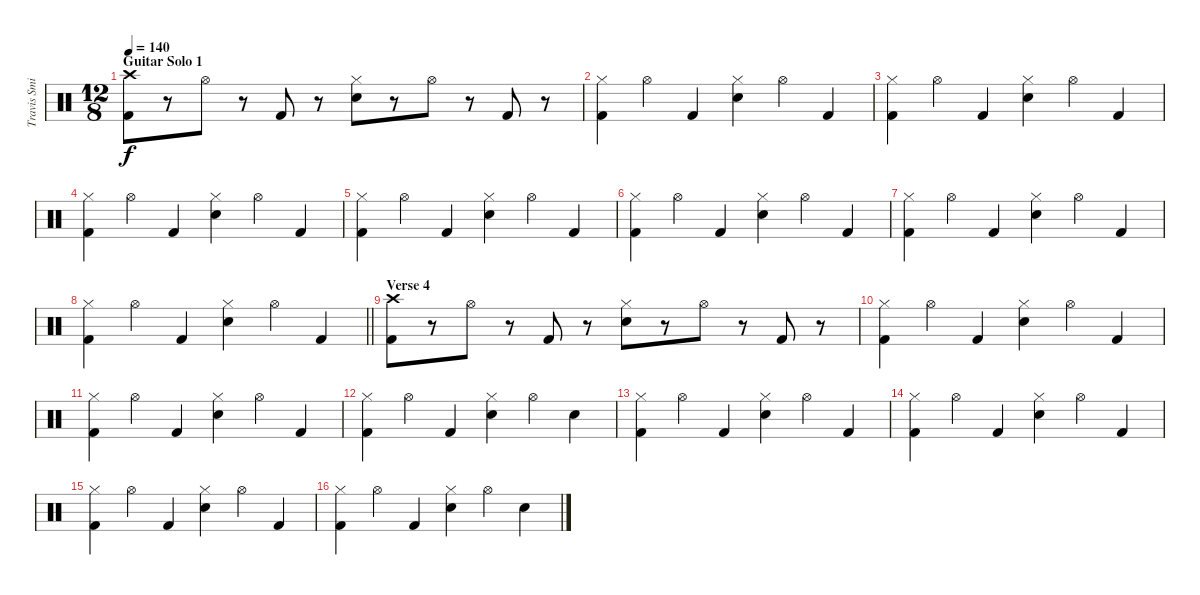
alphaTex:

\track ("Travis Smith" "Travis Smi") {instrument percussion}
\staff {score}
\articulation defaults
\ts (12 8)
\section ("" "Guitar Solo 1")
\tempo 140
\clef neutral
\ks c
("Crash high (hit)" "Kick (hit) 2").8{dy f} r.8 "Hi-Hat (open)".8 r.8 "Kick (hit) 2".8 r.8 ("Hi-Hat (closed)" "Electric Snare (hit)").8 r.8 "Hi-Hat (open)".8 r.8 "Kick (hit) 2".8 r.8 |
("Hi-Hat (closed)" "Kick (hit) 2").4 "Hi-Hat (open)".4 "Kick (hit) 2".4 ("Hi-Hat (closed)" "Electric Snare (hit)").4 "Hi-Hat (open)".4 "Kick (hit) 2".4 |
("Hi-Hat (closed)" "Kick (hit) 2").4 "Hi-Hat (open)".4 "Kick (hit) 2".4 ("Hi-Hat (closed)" "Electric Snare (hit)").4 "Hi-Hat (open)".4 "Kick (hit) 2".4 |
("Hi-Hat (closed)" "Kick (hit) 2").4 "Hi-Hat (open)".4 "Kick (hit) 2".4 ("Hi-Hat (closed)" "Electric Snare (hit)").4 "Hi-Hat (open)".4 "Kick (hit) 2".4 |
("Hi-Hat (closed)" "Kick (hit) 2").4 "Hi-Hat (open)".4 "Kick (hit) 2".4 ("Hi-Hat (closed)" "Electric Snare (hit)").4 "Hi-Hat (open)".4 "Kick (hit) 2".4 |
("Hi-Hat (closed)" "Kick (hit) 2").4 "Hi-Hat (open)".4 "Kick (hit) 2".4 ("Hi-Hat (closed)" "Electric Snare (hit)").4 "Hi-Hat (open)".4 "Kick (hit) 2".4 |
("Hi-Hat (closed)" "Kick (hit) 2").4 "Hi-Hat (open)".4 "Kick (hit) 2".4 ("Hi-Hat (closed)" "Electric Snare (hit)").4 "Hi-Hat (open)".4 "Kick (hit) 2".4 |
\barLineRight lightlight
("Hi-Hat (closed)" "Kick (hit) 2").4 "Hi-Hat (open)".4 "Kick (hit) 2".4 ("Hi-Hat (closed)" "Electric Snare (hit)").4 "Hi-Hat (open)".4 "Kick (hit) 2".4 |
\section ("" "Verse 4")
("Crash high (hit)" "Kick (hit) 2").8 r.8 "Hi-Hat (open)".8 r.8 "Kick (hit) 2".8 r.8 ("Hi-Hat (closed)" "Electric Snare (hit)").8 r.8 "Hi-Hat (open)".8 r.8 "Kick (hit) 2".8 r.8 |
("Hi-Hat (closed)" "Kick (hit) 2").4 "Hi-Hat (open)".4 "Kick (hit) 2".4 ("Hi-Hat (closed)" "Electric Snare (hit)").4 "Hi-Hat (open)".4 "Kick (hit) 2".4 |
("Hi-Hat (closed)" "Kick (hit) 2").4 "Hi-Hat (open)".4 "Kick (hit) 2".4 ("Hi-Hat (closed)" "Electric Snare (hit)").4 "Hi-Hat (open)".4 "Kick (hit) 2".4 |
("Hi-Hat (closed)" "Kick (hit) 2").4 "Hi-Hat (open)".4 "Kick (hit) 2".4 ("Hi-Hat (closed)" "Electric Snare (hit)").4 "Hi-Hat (open)".4 "Electric Snare (hit)".4 |
("Hi-Hat (closed)" "Kick (hit) 2").4 "Hi-Hat (open)".4 "Kick (hit) 2".4 ("Hi-Hat (closed)" "Electric Snare (hit)").4 "Hi-Hat (open)".4 "Kick (hit) 2".4 |
("Hi-Hat (closed)" "Kick (hit) 2").4 "Hi-Hat (open)".4 "Kick (hit) 2".4 ("Hi-Hat (closed)" "Electric Snare (hit)").4 "Hi-Hat (open)".4 "Kick (hit) 2".4 |
("Hi-Hat (closed)" "Kick (hit) 2").4 "Hi-Hat (open)".4 "Kick (hit) 2".4 ("Hi-Hat (closed)" "Electric Snare (hit)").4 "Hi-Hat (open)".4 "Kick (hit) 2".4 |
("Hi-Hat (closed)" "Kick (hit) 2").4 "Hi-Hat (open)".4 "Kick (hit) 2".4 ("Hi-Hat (closed)" "Electric Snare (hit)").4 "Hi-Hat (open)".4 "Electric Snare (hit)".4
